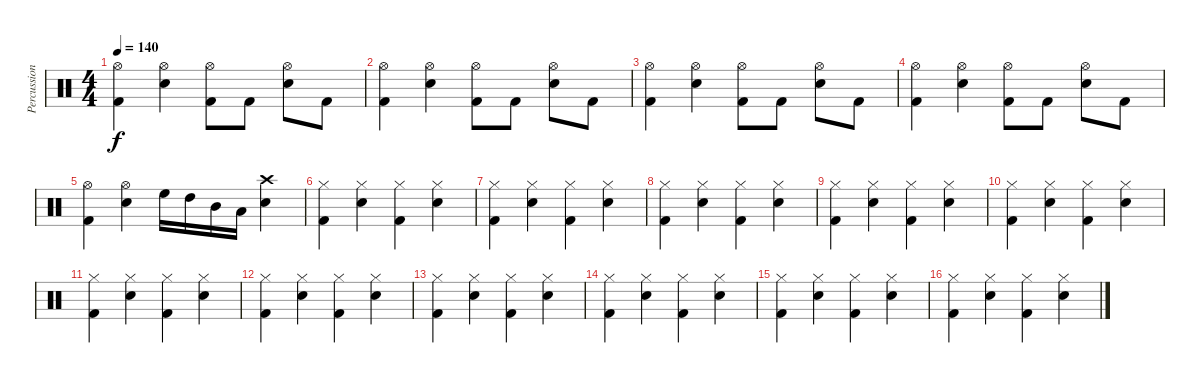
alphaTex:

\track ("Percussion" "Percussion") {instrument percussion}
\staff {score}
\articulation defaults
\ts (4 4)
\tempo 140
\clef neutral
\ks c
("Hi-Hat (open)" "Kick (hit) 2").4{dy f} ("Hi-Hat (open)" "Electric Snare (hit)").4 ("Hi-Hat (open)" "Kick (hit) 2").8 "Kick (hit) 2".8 ("Hi-Hat (open)" "Electric Snare (hit)").8 "Kick (hit) 2".8 |
("Hi-Hat (open)" "Kick (hit) 2").4 ("Hi-Hat (open)" "Electric Snare (hit)").4 ("Hi-Hat (open)" "Kick (hit) 2").8 "Kick (hit) 2".8 ("Hi-Hat (open)" "Electric Snare (hit)").8 "Kick (hit) 2".8 |
("Hi-Hat (open)" "Kick (hit) 2").4 ("Hi-Hat (open)" "Electric Snare (hit)").4 ("Hi-Hat (open)" "Kick (hit) 2").8 "Kick (hit) 2".8 ("Hi-Hat (open)" "Electric Snare (hit)").8 "Kick (hit) 2".8 |
("Hi-Hat (open)" "Kick (hit) 2").4 ("Hi-Hat (open)" "Electric Snare (hit)").4 ("Hi-Hat (open)" "Kick (hit) 2").8 "Kick (hit) 2".8 ("Hi-Hat (open)" "Electric Snare (hit)").8 "Kick (hit) 2".8 |
("Hi-Hat (open)" "Kick (hit) 2").4 ("Hi-Hat (open)" "Electric Snare (hit)").4 "High Floor Tom (hit)".16 "High Tom (hit)".16 "Mid Tom (hit)".16 "Low Tom (hit)".16 ("Crash high (hit)" "Electric Snare (hit)").4 |
("Hi-Hat (closed)" "Kick (hit) 2").4 ("Hi-Hat (closed)" "Electric Snare (hit)").4 ("Hi-Hat (closed)" "Kick (hit) 2").4 ("Hi-Hat (closed)" "Electric Snare (hit)").4 |
("Hi-Hat (closed)" "Kick (hit) 2").4 ("Hi-Hat (closed)" "Electric Snare (hit)").4 ("Hi-Hat (closed)" "Kick (hit) 2").4 ("Hi-Hat (closed)" "Electric Snare (hit)").4 |
("Hi-Hat (closed)" "Kick (hit) 2").4 ("Hi-Hat (closed)" "Electric Snare (hit)").4 ("Hi-Hat (closed)" "Kick (hit) 2").4 ("Hi-Hat (closed)" "Electric Snare (hit)").4 |
("Hi-Hat (closed)" "Kick (hit) 2").4 ("Hi-Hat (closed)" "Electric Snare (hit)").4 ("Hi-Hat (closed)" "Kick (hit) 2").4 ("Hi-Hat (closed)" "Electric Snare (hit)").4 |
("Hi-Hat (closed)" "Kick (hit) 2").4 ("Hi-Hat (closed)" "Electric Snare (hit)").4 ("Hi-Hat (closed)" "Kick (hit) 2").4 ("Hi-Hat (closed)" "Electric Snare (hit)").4 |
("Hi-Hat (closed)" "Kick (hit) 2").4 ("Hi-Hat (closed)" "Electric Snare (hit)").4 ("Hi-Hat (closed)" "Kick (hit) 2").4 ("Hi-Hat (closed)" "Electric Snare (hit)").4 |
("Hi-Hat (closed)" "Kick (hit) 2").4 ("Hi-Hat (closed)" "Electric Snare (hit)").4 ("Hi-Hat (closed)" "Kick (hit) 2").4 ("Hi-Hat (closed)" "Electric Snare (hit)").4 |
("Hi-Hat (closed)" "Kick (hit) 2").4 ("Hi-Hat (closed)" "Electric Snare (hit)").4 ("Hi-Hat (closed)" "Kick (hit) 2").4 ("Hi-Hat (closed)" "Electric Snare (hit)").4 |
("Hi-Hat (closed)" "Kick (hit) 2").4 ("Hi-Hat (closed)" "Electric Snare (hit)").4 ("Hi-Hat (closed)" "Kick (hit) 2").4 ("Hi-Hat (closed)" "Electric Snare (hit)").4 |
("Hi-Hat (closed)" "Kick (hit) 2").4 ("Hi-Hat (closed)" "Electric Snare (hit)").4 ("Hi-Hat (closed)" "Kick (hit) 2").4 ("Hi-Hat (closed)" "Electric Snare (hit)").4 |
("Hi-Hat (closed)" "Kick (hit) 2").4 ("Hi-Hat (closed)" "Electric Snare (hit)").4 ("Hi-Hat (closed)" "Kick (hit) 2").4 ("Hi-Hat (closed)" "Electric Snare (hit)").4
